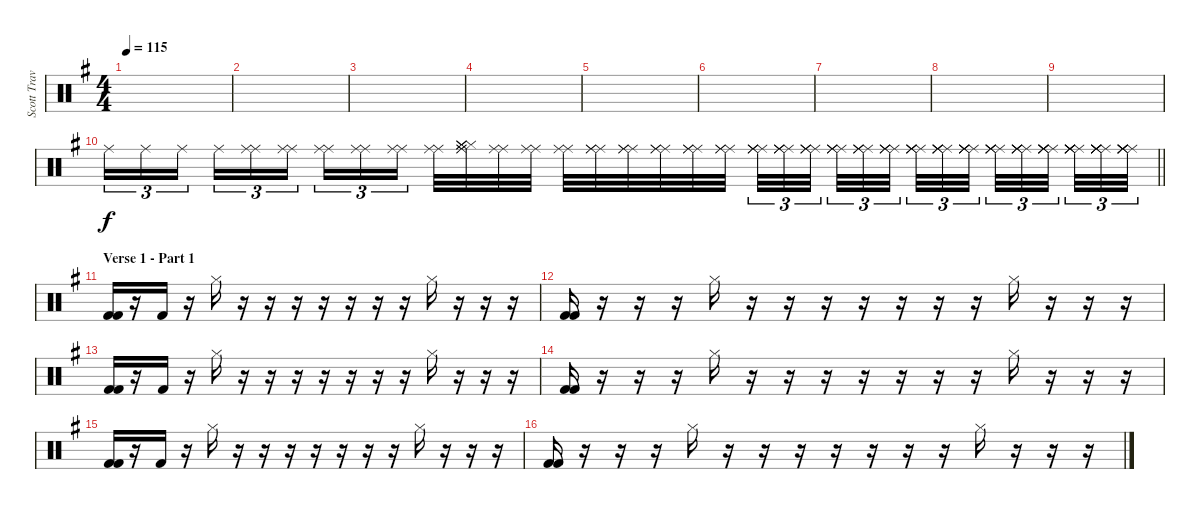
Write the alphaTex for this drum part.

\track ("Scott Travis" "Scott Trav") {instrument percussion}
\staff {score}
\articulation defaults
\ts (4 4)
\tempo 115
\clef neutral
\ks eminor
|
|
|
|
|
|
|
|
|
\barLineRight lightlight "Ride (middle)".16{tu (3 2)} "Ride (middle)".16{tu (3 2)} "Ride (middle)".16{tu (3 2)} "Ride (middle)".16{tu (3 2)}
("Ride (middle)" "Ride (middle)").16{tu (3 2)} ("Ride (middle)" "Ride (middle)").16{tu (3 2)} ("Ride (middle)" "Ride (middle)").16{tu (3 2)} ("Ride (middle)" "Ride (middle)").16{tu (3 2)} ("Ride (middle)" "Ride (middle)").16{tu (3 2)} ("Ride (middle)" "Ride (middle)").32 ("Hi-Hat (closed)" "Hi-Hat (closed)" "Ride (middle)" "Ride (middle)" "Hi-Hat (closed)" "Hi-Hat (closed)").32 ("Ride (middle)" "Ride (middle)").32 ("Ride (middle)" "Ride (middle)").32 ("Ride (middle)" "Ride (middle)").32 ("Ride (middle)" "Ride (middle)" "Ride (middle)").32 ("Ride (middle)" "Ride (middle)" "Ride (middle)").32 ("Ride (middle)" "Ride (middle)" "Ride (middle)").32 ("Ride (middle)" "Ride (middle)" "Ride (middle)").32 ("Ride (middle)" "Ride (middle)" "Ride (middle)").32 ("Ride (middle)" "Ride (middle)" "Ride (middle)" "Ride (middle)").32{tu (3 2)} ("Ride (middle)" "Ride (middle)" "Ride (middle)" "Ride (middle)").32{tu (3 2)} ("Ride (middle)" "Ride (middle)" "Ride (middle)" "Ride (middle)").32{tu (3 2)} ("Ride (middle)" "Ride (middle)" "Ride (middle)" "Ride (middle)").32{tu (3 2)} ("Ride (middle)" "Ride (middle)" "Ride (middle)" "Ride (middle)").32{tu (3 2)} ("Ride (middle)" "Ride (middle)" "Ride (middle)" "Ride (middle)").32{tu (3 2)} ("Ride (middle)" "Ride (middle)" "Ride (middle)" "Ride (middle)" "Ride (middle)").32{tu (3 2)} ("Ride (middle)" "Ride (middle)" "Ride (middle)" "Ride (middle)" "Ride (middle)").32{tu (3 2)} ("Ride (middle)" "Ride (middle)" "Ride (middle)" "Ride (middle)" "Ride (middle)").32{tu (3 2)} ("Ride (middle)" "Ride (middle)" "Ride (middle)" "Ride (middle)" "Ride (middle)").32{tu (3 2)} ("Ride (middle)" "Ride (middle)" "Ride (middle)" "Ride (middle)" "Ride (middle)").32{tu (3 2)} ("Ride (middle)" "Ride (middle)" "Ride (middle)" "Ride (middle)" "Ride (middle)" "Ride (middle)").32{tu (3 2)} ("Ride (middle)" "Ride (middle)" "Ride (middle)" "Ride (middle)" "Ride (middle)" "Ride (middle)").32{tu (3 2)} ("Ride (middle)" "Ride (middle)" "Ride (middle)" "Ride (middle)" "Ride (middle)" "Ride (middle)").32{tu (3 2)} ("Ride (middle)" "Ride (middle)" "Ride (middle)" "Ride (middle)" "Ride (middle)" "Ride (middle)").32{tu (3 2)} |
\section ("" "Verse 1 - Part 1")
("Kick (hit) 2" "Kick (hit) 2").16 r.16 "Kick (hit) 2".16 r.16 "Hi-Hat (closed)".16 r.16 r.16 r.16 r.16 r.16 r.16 r.16 "Hi-Hat (closed)".16 r.16 r.16 r.16 |
("Kick (hit) 2" "Kick (hit) 2").16 r.16 r.16 r.16 "Hi-Hat (closed)".16 r.16 r.16 r.16 r.16 r.16 r.16 r.16 "Hi-Hat (closed)".16 r.16 r.16 r.16 |
("Kick (hit) 2" "Kick (hit) 2").16 r.16 "Kick (hit) 2".16 r.16 "Hi-Hat (closed)".16 r.16 r.16 r.16 r.16 r.16 r.16 r.16 "Hi-Hat (closed)".16 r.16 r.16 r.16 |
("Kick (hit) 2" "Kick (hit) 2").16 r.16 r.16 r.16 "Hi-Hat (closed)".16 r.16 r.16 r.16 r.16 r.16 r.16 r.16 "Hi-Hat (closed)".16 r.16 r.16 r.16 |
("Kick (hit) 2" "Kick (hit) 2").16 r.16 "Kick (hit) 2".16 r.16 "Hi-Hat (closed)".16 r.16 r.16 r.16 r.16 r.16 r.16 r.16 "Hi-Hat (closed)".16 r.16 r.16 r.16 |
("Kick (hit) 2" "Kick (hit) 2").16 r.16 r.16 r.16 "Hi-Hat (closed)".16 r.16 r.16 r.16 r.16 r.16 r.16 r.16 "Hi-Hat (closed)".16 r.16 r.16 r.16
